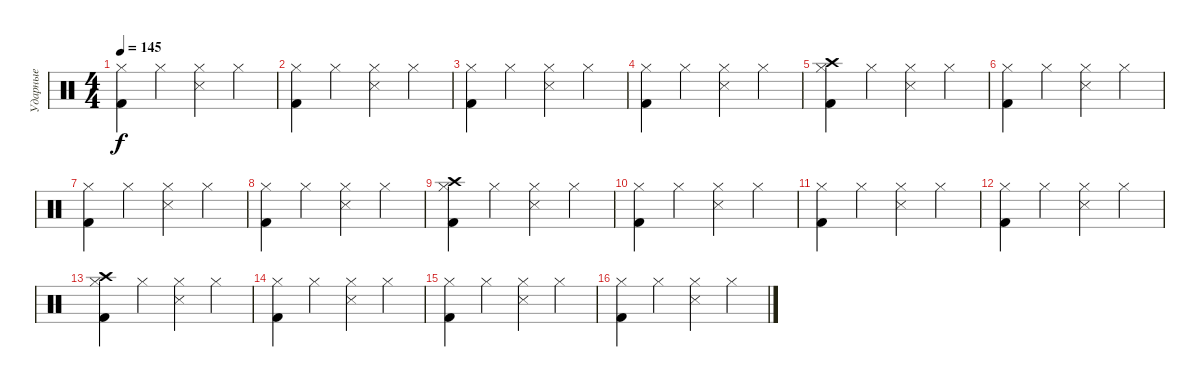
\track ("Ударные" "Ударные") {instrument percussion}
\staff {score}
\articulation defaults
\ts (4 4)
\tempo 145
\clef neutral
\ks c
("Kick (hit) 2" "Hi-Hat (closed)").4{dy f} "Hi-Hat (closed)".4 ("Hi-Hat (closed)" "Snare (side stick) 3").4 "Hi-Hat (closed)".4 |
("Kick (hit) 2" "Hi-Hat (closed)").4 "Hi-Hat (closed)".4 ("Snare (side stick) 3" "Hi-Hat (closed)").4 "Hi-Hat (closed)".4 |
("Kick (hit) 2" "Hi-Hat (closed)").4 "Hi-Hat (closed)".4 ("Snare (side stick) 3" "Hi-Hat (closed)").4 "Hi-Hat (closed)".4 |
("Kick (hit) 2" "Hi-Hat (closed)").4 "Hi-Hat (closed)".4 ("Hi-Hat (closed)" "Snare (side stick) 3").4 "Hi-Hat (closed)".4 |
("Crash high (hit)" "Kick (hit) 2" "Hi-Hat (closed)").4 "Hi-Hat (closed)".4 ("Snare (side stick) 3" "Hi-Hat (closed)").4 "Hi-Hat (closed)".4 |
("Kick (hit) 2" "Hi-Hat (closed)").4 "Hi-Hat (closed)".4 ("Hi-Hat (closed)" "Snare (side stick) 3").4 "Hi-Hat (closed)".4 |
("Hi-Hat (closed)" "Kick (hit) 2").4 "Hi-Hat (closed)".4 ("Snare (side stick) 3" "Hi-Hat (closed)").4 "Hi-Hat (closed)".4 |
("Hi-Hat (closed)" "Kick (hit) 2").4 "Hi-Hat (closed)".4 ("Hi-Hat (closed)" "Snare (side stick) 3").4 "Hi-Hat (closed)".4 |
("Crash high (hit)" "Hi-Hat (closed)" "Kick (hit) 2").4 "Hi-Hat (closed)".4 ("Hi-Hat (closed)" "Snare (side stick) 3").4 "Hi-Hat (closed)".4 |
("Hi-Hat (closed)" "Kick (hit) 2").4 "Hi-Hat (closed)".4 ("Snare (side stick) 3" "Hi-Hat (closed)").4 "Hi-Hat (closed)".4 |
("Hi-Hat (closed)" "Kick (hit) 2").4 "Hi-Hat (closed)".4 ("Snare (side stick) 3" "Hi-Hat (closed)").4 "Hi-Hat (closed)".4 |
("Hi-Hat (closed)" "Kick (hit) 2").4 "Hi-Hat (closed)".4 ("Hi-Hat (closed)" "Snare (side stick) 3").4 "Hi-Hat (closed)".4 |
("Crash high (hit)" "Hi-Hat (closed)" "Kick (hit) 2").4 "Hi-Hat (closed)".4 ("Snare (side stick) 3" "Hi-Hat (closed)").4 "Hi-Hat (closed)".4 |
("Hi-Hat (closed)" "Kick (hit) 2").4 "Hi-Hat (closed)".4 ("Hi-Hat (closed)" "Snare (side stick) 3").4 "Hi-Hat (closed)".4 |
("Hi-Hat (closed)" "Kick (hit) 2").4 "Hi-Hat (closed)".4 ("Hi-Hat (closed)" "Snare (side stick) 3").4 "Hi-Hat (closed)".4 |
("Kick (hit) 2" "Hi-Hat (closed)").4 "Hi-Hat (closed)".4 ("Snare (side stick) 3" "Hi-Hat (closed)").4 "Hi-Hat (closed)".4
